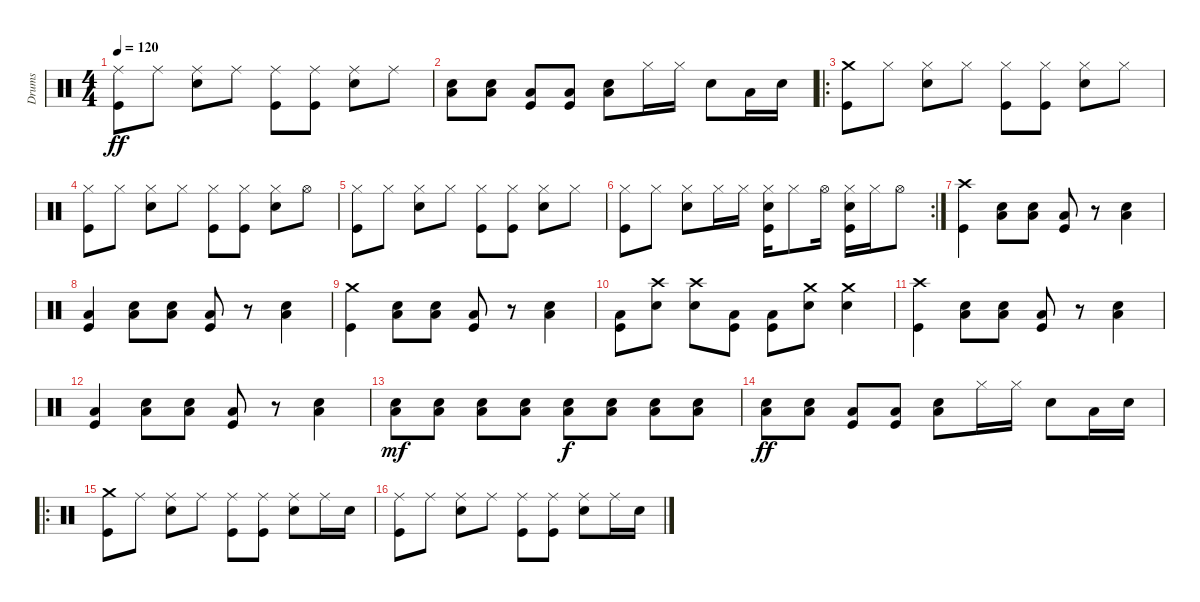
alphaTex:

\track ("Drums" "Drums") {instrument percussion}
\staff {score}
\articulation defaults
\ts (4 4)
\tempo 120
\clef neutral
\ks c
("Ride (middle)" "Kick (hit)").8{dy ff} "Ride (middle)".8 ("Ride (middle)" "Snare (hit) 2").8 "Ride (middle)".8 ("Ride (middle)" "Kick (hit)").8 ("Ride (middle)" "Kick (hit)").8 ("Ride (middle)" "Snare (hit) 2").8 "Ride (middle)".8 |
("Low Floor Tom (hit)" "Snare (hit) 2").8 ("Low Floor Tom (hit)" "Snare (hit) 2").8 ("Low Floor Tom (hit)" "Kick (hit)").8 ("Low Floor Tom (hit)" "Kick (hit)").8 ("Low Floor Tom (hit)" "Snare (hit) 2").8 "Hi-Hat (closed)".16 "Hi-Hat (closed)".16 "Snare (hit) 2".8 "Low Tom (hit)".16 "Snare (hit) 2".16 |
\ro
("Crash medium (hit)" "Kick (hit)").8 "Hi-Hat (closed)".8 ("Hi-Hat (closed)" "Snare (hit) 2").8 "Hi-Hat (closed)".8 ("Hi-Hat (closed)" "Kick (hit)").8 ("Hi-Hat (closed)" "Kick (hit)").8 ("Hi-Hat (closed)" "Snare (hit) 2").8 "Hi-Hat (closed)".8 |
("Hi-Hat (closed)" "Kick (hit)").8 "Hi-Hat (closed)".8 ("Hi-Hat (closed)" "Snare (hit) 2").8 "Hi-Hat (closed)".8 ("Hi-Hat (closed)" "Kick (hit)").8 ("Hi-Hat (closed)" "Kick (hit)").8 ("Hi-Hat (closed)" "Snare (hit) 2").8 "Hi-Hat (open)".8 |
("Hi-Hat (closed)" "Kick (hit)").8 "Hi-Hat (closed)".8 ("Hi-Hat (closed)" "Snare (hit) 2").8 "Hi-Hat (closed)".8 ("Hi-Hat (closed)" "Kick (hit)").8 ("Hi-Hat (closed)" "Kick (hit)").8 ("Hi-Hat (closed)" "Snare (hit) 2").8 "Hi-Hat (closed)".8 |
\rc 2
("Hi-Hat (closed)" "Kick (hit)").8 "Hi-Hat (closed)".8 ("Hi-Hat (closed)" "Snare (hit) 2").8 "Hi-Hat (closed)".16 "Hi-Hat (closed)".16 ("Hi-Hat (closed)" "Snare (hit) 2" "Kick (hit)").16 "Hi-Hat (closed)".8 "Hi-Hat (open)".16 ("Hi-Hat (closed)" "Snare (hit) 2" "Kick (hit)").16 "Hi-Hat (closed)".16 "Hi-Hat (open)".8 |
("Crash high (hit)" "Kick (hit)").4 ("Low Floor Tom (hit)" "Snare (hit) 2").8 ("Low Floor Tom (hit)" "Snare (hit) 2").8 ("Low Floor Tom (hit)" "Kick (hit)").8 r.8 ("Low Floor Tom (hit)" "Snare (hit) 2").4 |
("Low Floor Tom (hit)" "Kick (hit)").4 ("Low Floor Tom (hit)" "Snare (hit) 2").8 ("Low Floor Tom (hit)" "Snare (hit) 2").8 ("Low Floor Tom (hit)" "Kick (hit)").8 r.8 ("Low Floor Tom (hit)" "Snare (hit) 2").4 |
("Crash medium (hit)" "Kick (hit)").4 ("Low Floor Tom (hit)" "Snare (hit) 2").8 ("Low Floor Tom (hit)" "Snare (hit) 2").8 ("Low Floor Tom (hit)" "Kick (hit)").8 r.8 ("Low Floor Tom (hit)" "Snare (hit) 2").4 |
("Low Floor Tom (hit)" "Kick (hit)").8 ("Crash high (hit)" "Snare (hit) 2").8 ("Crash high (hit)" "Snare (hit) 2").8 ("Low Floor Tom (hit)" "Kick (hit)").8 ("Low Floor Tom (hit)" "Kick (hit)").8 ("Crash medium (hit)" "Snare (hit) 2").8 ("Crash medium (hit)" "Snare (hit) 2").4 |
("Crash high (hit)" "Kick (hit)").4 ("Low Floor Tom (hit)" "Snare (hit) 2").8 ("Low Floor Tom (hit)" "Snare (hit) 2").8 ("Low Floor Tom (hit)" "Kick (hit)").8 r.8 ("Low Floor Tom (hit)" "Snare (hit) 2").4 |
("Low Floor Tom (hit)" "Kick (hit)").4 ("Low Floor Tom (hit)" "Snare (hit) 2").8 ("Low Floor Tom (hit)" "Snare (hit) 2").8 ("Low Floor Tom (hit)" "Kick (hit)").8 r.8 ("Low Floor Tom (hit)" "Snare (hit) 2").4 |
("Low Floor Tom (hit)" "Snare (hit) 2").8{dy mf} ("Low Floor Tom (hit)" "Snare (hit) 2").8 ("Low Floor Tom (hit)" "Snare (hit) 2").8 ("Low Floor Tom (hit)" "Snare (hit) 2").8 ("Low Floor Tom (hit)" "Snare (hit) 2").8{dy f} ("Low Floor Tom (hit)" "Snare (hit) 2").8 ("Low Floor Tom (hit)" "Snare (hit) 2").8 ("Low Floor Tom (hit)" "Snare (hit) 2").8 |
("Low Floor Tom (hit)" "Snare (hit) 2").8{dy ff} ("Low Floor Tom (hit)" "Snare (hit) 2").8 ("Low Floor Tom (hit)" "Kick (hit)").8 ("Low Floor Tom (hit)" "Kick (hit)").8 ("Low Floor Tom (hit)" "Snare (hit) 2").8 "Hi-Hat (closed)".16 "Hi-Hat (closed)".16 "Snare (hit) 2".8 "Low Tom (hit)".16 "Snare (hit) 2".16 |
\ro
("Crash medium (hit)" "Kick (hit)").8 "Ride (middle)".8 ("Ride (middle)" "Snare (hit) 2").8 "Ride (middle)".8 ("Ride (middle)" "Kick (hit)").8 ("Ride (middle)" "Kick (hit)").8 ("Ride (middle)" "Snare (hit) 2").8 "Ride (middle)".16 "Snare (hit) 2".16 |
("Ride (middle)" "Kick (hit)").8 "Ride (middle)".8 ("Ride (middle)" "Snare (hit) 2").8 "Ride (middle)".8 ("Ride (middle)" "Kick (hit)").8 ("Ride (middle)" "Kick (hit)").8 ("Ride (middle)" "Snare (hit) 2").8 "Ride (middle)".16 "Snare (hit) 2".16
